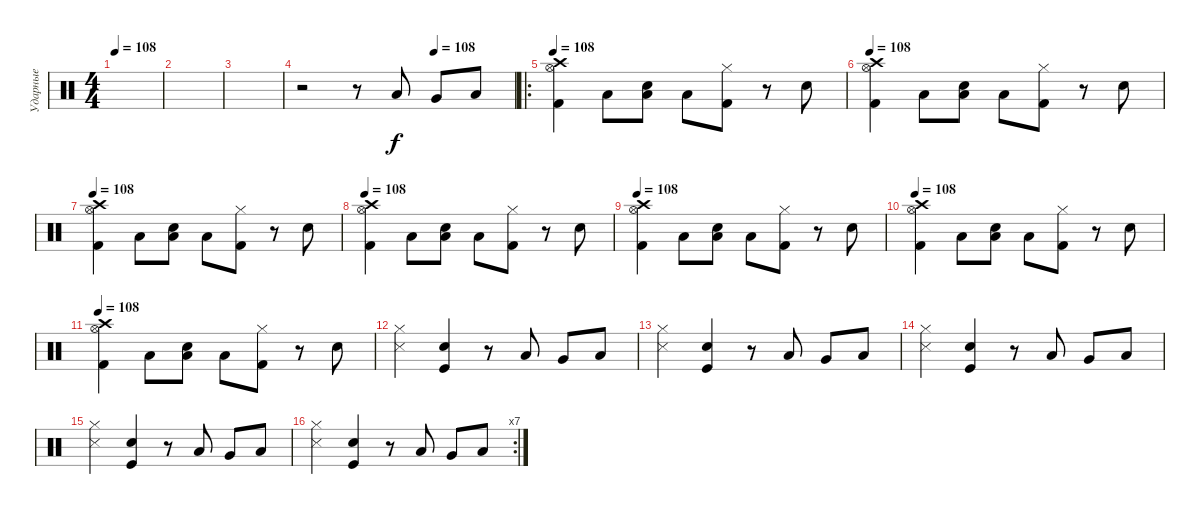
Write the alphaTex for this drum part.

\track ("Ударные" "Ударные") {instrument percussion}
\staff {score}
\articulation defaults
\ts (4 4)
\tempo 108
\clef neutral
\ks c
|
|
|
\tempo (108 0.625)
r.2 r.8 "Low Floor Tom (hit)".8 "Very Low Tom (hit)".8 "Low Floor Tom (hit)".8 |
\ro
\tempo 108
("Kick (hit) 2" "Hi-Hat (open)" "Crash high (hit)").4 "Low Floor Tom (hit)".8 ("Low Floor Tom (hit)" "Electric Snare (hit)").8 "Low Floor Tom (hit)".8 ("Kick (hit) 2" "Hi-Hat (closed)").8 r.8 "Electric Snare (hit)".8 |
\tempo 108
("Kick (hit) 2" "Hi-Hat (open)" "Crash high (hit)").4 "Low Floor Tom (hit)".8 ("Low Floor Tom (hit)" "Electric Snare (hit)").8 "Low Floor Tom (hit)".8 ("Kick (hit) 2" "Hi-Hat (closed)").8 r.8 "Electric Snare (hit)".8 |
\tempo 108
("Kick (hit) 2" "Hi-Hat (open)" "Crash high (hit)").4 "Low Floor Tom (hit)".8 ("Low Floor Tom (hit)" "Electric Snare (hit)").8 "Low Floor Tom (hit)".8 ("Kick (hit) 2" "Hi-Hat (closed)").8 r.8 "Electric Snare (hit)".8 |
\tempo 108
("Kick (hit) 2" "Hi-Hat (open)" "Crash high (hit)").4 "Low Floor Tom (hit)".8 ("Low Floor Tom (hit)" "Electric Snare (hit)").8 "Low Floor Tom (hit)".8 ("Kick (hit) 2" "Hi-Hat (closed)").8 r.8 "Electric Snare (hit)".8 |
\tempo 108
("Kick (hit) 2" "Hi-Hat (open)" "Crash high (hit)").4 "Low Floor Tom (hit)".8 ("Low Floor Tom (hit)" "Electric Snare (hit)").8 "Low Floor Tom (hit)".8 ("Kick (hit) 2" "Hi-Hat (closed)").8 r.8 "Electric Snare (hit)".8 |
\tempo 108
("Kick (hit) 2" "Hi-Hat (open)" "Crash high (hit)").4 "Low Floor Tom (hit)".8 ("Low Floor Tom (hit)" "Electric Snare (hit)").8 "Low Floor Tom (hit)".8 ("Kick (hit) 2" "Hi-Hat (closed)").8 r.8 "Electric Snare (hit)".8 |
\tempo 108
("Kick (hit) 2" "Hi-Hat (open)" "Crash high (hit)").4 "Low Floor Tom (hit)".8 ("Low Floor Tom (hit)" "Electric Snare (hit)").8 "Low Floor Tom (hit)".8 ("Kick (hit) 2" "Hi-Hat (closed)").8 r.8 "Electric Snare (hit)".8 |
("Snare (side stick) 3" "Hi-Hat (closed)").4 ("Snare (hit) 2" "Kick (hit)").4 r.8 "Low Floor Tom (hit)".8 "Very Low Tom (hit)".8 "Low Floor Tom (hit)".8 |
("Snare (side stick) 3" "Hi-Hat (closed)").4 ("Snare (hit) 2" "Kick (hit)").4 r.8 "Low Floor Tom (hit)".8 "Very Low Tom (hit)".8 "Low Floor Tom (hit)".8 |
("Snare (side stick) 3" "Hi-Hat (closed)").4 ("Snare (hit) 2" "Kick (hit)").4 r.8 "Low Floor Tom (hit)".8 "Very Low Tom (hit)".8 "Low Floor Tom (hit)".8 |
("Snare (side stick) 3" "Hi-Hat (closed)").4 ("Snare (hit) 2" "Kick (hit)").4 r.8 "Low Floor Tom (hit)".8 "Very Low Tom (hit)".8 "Low Floor Tom (hit)".8 |
\rc 7
("Snare (side stick) 3" "Hi-Hat (closed)").4 ("Snare (hit) 2" "Kick (hit)").4 r.8 "Low Floor Tom (hit)".8 "Very Low Tom (hit)".8 "Low Floor Tom (hit)".8
